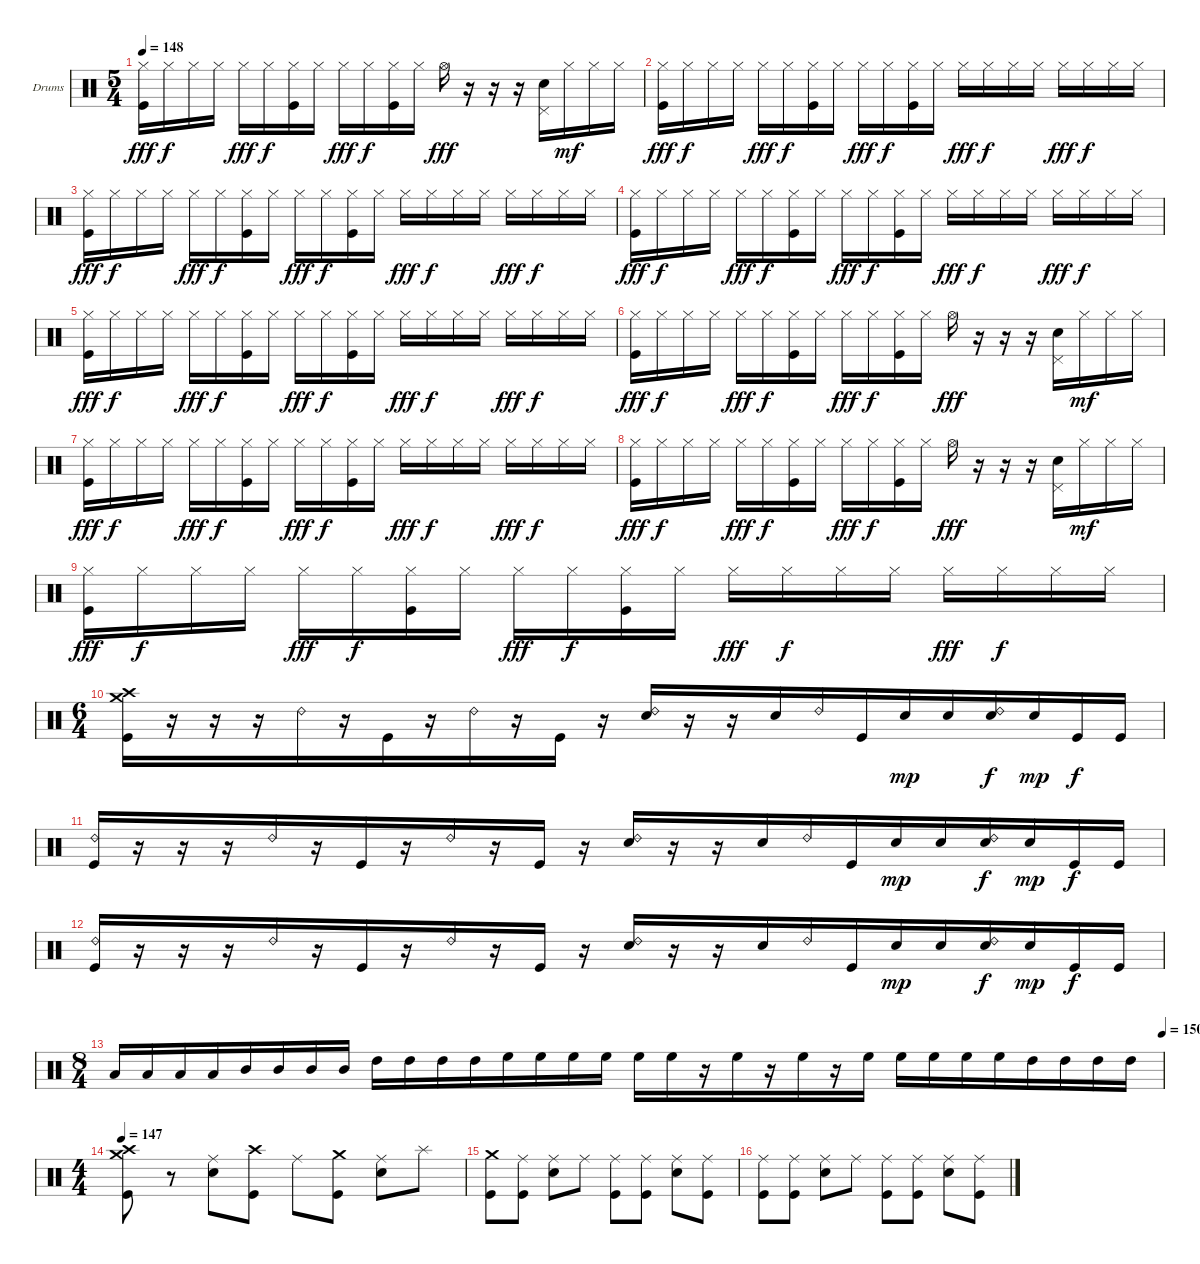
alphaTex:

\bracketExtendMode groupsimilarinstruments
\firstSystemTrackNameOrientation horizontal
\otherSystemsTrackNameOrientation horizontal
\track ("Ударные" "Drums") {instrument percussion}
\staff {score}
\articulation defaults
\ts (5 4)
\tempo 148
\clef neutral
\ks c
("Hi-Hat (closed)" "Kick (hit)").16{dy fff} "Hi-Hat (closed)".16{dy f} "Hi-Hat (closed)".16 "Hi-Hat (closed)".16 "Hi-Hat (closed)".16{dy fff} "Hi-Hat (closed)".16{dy f} ("Hi-Hat (closed)" "Kick (hit)").16 "Hi-Hat (closed)".16 "Hi-Hat (closed)".16{dy fff} "Hi-Hat (closed)".16{dy f} ("Hi-Hat (closed)" "Kick (hit)").16 "Hi-Hat (closed)".16 "Hi-Hat (open)".16{dy fff} r.16 r.16 r.16 ("Pedal Hi-Hat (hit)" "Snare (hit) 2").16 "Hi-Hat (closed)".16{dy mf} "Hi-Hat (closed)".16 "Hi-Hat (closed)".16 |
("Hi-Hat (closed)" "Kick (hit)").16{dy fff} "Hi-Hat (closed)".16{dy f} "Hi-Hat (closed)".16 "Hi-Hat (closed)".16 "Hi-Hat (closed)".16{dy fff} "Hi-Hat (closed)".16{dy f} ("Hi-Hat (closed)" "Kick (hit)").16 "Hi-Hat (closed)".16 "Hi-Hat (closed)".16{dy fff} "Hi-Hat (closed)".16{dy f} ("Hi-Hat (closed)" "Kick (hit)").16 "Hi-Hat (closed)".16 "Hi-Hat (closed)".16{dy fff} "Hi-Hat (closed)".16{dy f} "Hi-Hat (closed)".16 "Hi-Hat (closed)".16 "Hi-Hat (closed)".16{dy fff} "Hi-Hat (closed)".16{dy f} "Hi-Hat (closed)".16 "Hi-Hat (closed)".16 |
("Hi-Hat (closed)" "Kick (hit)").16{dy fff} "Hi-Hat (closed)".16{dy f} "Hi-Hat (closed)".16 "Hi-Hat (closed)".16 "Hi-Hat (closed)".16{dy fff} "Hi-Hat (closed)".16{dy f} ("Hi-Hat (closed)" "Kick (hit)").16 "Hi-Hat (closed)".16 "Hi-Hat (closed)".16{dy fff} "Hi-Hat (closed)".16{dy f} ("Hi-Hat (closed)" "Kick (hit)").16 "Hi-Hat (closed)".16 "Hi-Hat (closed)".16{dy fff} "Hi-Hat (closed)".16{dy f} "Hi-Hat (closed)".16 "Hi-Hat (closed)".16 "Hi-Hat (closed)".16{dy fff} "Hi-Hat (closed)".16{dy f} "Hi-Hat (closed)".16 "Hi-Hat (closed)".16 |
("Hi-Hat (closed)" "Kick (hit)").16{dy fff} "Hi-Hat (closed)".16{dy f} "Hi-Hat (closed)".16 "Hi-Hat (closed)".16 "Hi-Hat (closed)".16{dy fff} "Hi-Hat (closed)".16{dy f} ("Hi-Hat (closed)" "Kick (hit)").16 "Hi-Hat (closed)".16 "Hi-Hat (closed)".16{dy fff} "Hi-Hat (closed)".16{dy f} ("Hi-Hat (closed)" "Kick (hit)").16 "Hi-Hat (closed)".16 "Hi-Hat (closed)".16{dy fff} "Hi-Hat (closed)".16{dy f} "Hi-Hat (closed)".16 "Hi-Hat (closed)".16 "Hi-Hat (closed)".16{dy fff} "Hi-Hat (closed)".16{dy f} "Hi-Hat (closed)".16 "Hi-Hat (closed)".16 |
("Hi-Hat (closed)" "Kick (hit)").16{dy fff} "Hi-Hat (closed)".16{dy f} "Hi-Hat (closed)".16 "Hi-Hat (closed)".16 "Hi-Hat (closed)".16{dy fff} "Hi-Hat (closed)".16{dy f} ("Hi-Hat (closed)" "Kick (hit)").16 "Hi-Hat (closed)".16 "Hi-Hat (closed)".16{dy fff} "Hi-Hat (closed)".16{dy f} ("Hi-Hat (closed)" "Kick (hit)").16 "Hi-Hat (closed)".16 "Hi-Hat (closed)".16{dy fff} "Hi-Hat (closed)".16{dy f} "Hi-Hat (closed)".16 "Hi-Hat (closed)".16 "Hi-Hat (closed)".16{dy fff} "Hi-Hat (closed)".16{dy f} "Hi-Hat (closed)".16 "Hi-Hat (closed)".16 |
("Hi-Hat (closed)" "Kick (hit)").16{dy fff} "Hi-Hat (closed)".16{dy f} "Hi-Hat (closed)".16 "Hi-Hat (closed)".16 "Hi-Hat (closed)".16{dy fff} "Hi-Hat (closed)".16{dy f} ("Hi-Hat (closed)" "Kick (hit)").16 "Hi-Hat (closed)".16 "Hi-Hat (closed)".16{dy fff} "Hi-Hat (closed)".16{dy f} ("Hi-Hat (closed)" "Kick (hit)").16 "Hi-Hat (closed)".16 "Hi-Hat (open)".16{dy fff} r.16 r.16 r.16 ("Pedal Hi-Hat (hit)" "Snare (hit) 2").16 "Hi-Hat (closed)".16{dy mf} "Hi-Hat (closed)".16 "Hi-Hat (closed)".16 |
("Hi-Hat (closed)" "Kick (hit)").16{dy fff} "Hi-Hat (closed)".16{dy f} "Hi-Hat (closed)".16 "Hi-Hat (closed)".16 "Hi-Hat (closed)".16{dy fff} "Hi-Hat (closed)".16{dy f} ("Hi-Hat (closed)" "Kick (hit)").16 "Hi-Hat (closed)".16 "Hi-Hat (closed)".16{dy fff} "Hi-Hat (closed)".16{dy f} ("Hi-Hat (closed)" "Kick (hit)").16 "Hi-Hat (closed)".16 "Hi-Hat (closed)".16{dy fff} "Hi-Hat (closed)".16{dy f} "Hi-Hat (closed)".16 "Hi-Hat (closed)".16 "Hi-Hat (closed)".16{dy fff} "Hi-Hat (closed)".16{dy f} "Hi-Hat (closed)".16 "Hi-Hat (closed)".16 |
("Hi-Hat (closed)" "Kick (hit)").16{dy fff} "Hi-Hat (closed)".16{dy f} "Hi-Hat (closed)".16 "Hi-Hat (closed)".16 "Hi-Hat (closed)".16{dy fff} "Hi-Hat (closed)".16{dy f} ("Hi-Hat (closed)" "Kick (hit)").16 "Hi-Hat (closed)".16 "Hi-Hat (closed)".16{dy fff} "Hi-Hat (closed)".16{dy f} ("Hi-Hat (closed)" "Kick (hit)").16 "Hi-Hat (closed)".16 "Hi-Hat (open)".16{dy fff} r.16 r.16 r.16 ("Pedal Hi-Hat (hit)" "Snare (hit) 2").16 "Hi-Hat (closed)".16{dy mf} "Hi-Hat (closed)".16 "Hi-Hat (closed)".16 |
("Hi-Hat (closed)" "Kick (hit)").16{dy fff} "Hi-Hat (closed)".16{dy f} "Hi-Hat (closed)".16 "Hi-Hat (closed)".16 "Hi-Hat (closed)".16{dy fff} "Hi-Hat (closed)".16{dy f} ("Hi-Hat (closed)" "Kick (hit)").16 "Hi-Hat (closed)".16 "Hi-Hat (closed)".16{dy fff} "Hi-Hat (closed)".16{dy f} ("Hi-Hat (closed)" "Kick (hit)").16 "Hi-Hat (closed)".16 "Hi-Hat (closed)".16{dy fff} "Hi-Hat (closed)".16{dy f} "Hi-Hat (closed)".16 "Hi-Hat (closed)".16 "Hi-Hat (closed)".16{dy fff} "Hi-Hat (closed)".16{dy f} "Hi-Hat (closed)".16 "Hi-Hat (closed)".16 |
\ts (6 4)
\beaming (8 6 6)
("Crash high (hit)" "Crash medium (hit)" "Kick (hit)").16 r.16 r.16 r.16 "Ride (bell) 2".16 r.16 "Kick (hit)".16 r.16 "Ride (bell) 2".16 r.16 "Kick (hit)".16 r.16 ("Ride (bell) 2" "Snare (hit) 2").16 r.16 r.16 "Snare (hit) 2".16 "Ride (bell) 2".16 "Kick (hit)".16 "Snare (hit) 2".16{dy mp} "Snare (hit) 2".16 ("Ride (bell) 2" "Snare (hit) 2").16{dy f} "Snare (hit) 2".16{dy mp} "Kick (hit)".16{dy f} "Kick (hit)".16 |
("Ride (bell) 2" "Kick (hit)").16 r.16 r.16 r.16 "Ride (bell) 2".16 r.16 "Kick (hit)".16 r.16 "Ride (bell) 2".16 r.16 "Kick (hit)".16 r.16 ("Ride (bell) 2" "Snare (hit) 2").16 r.16 r.16 "Snare (hit) 2".16 "Ride (bell) 2".16 "Kick (hit)".16 "Snare (hit) 2".16{dy mp} "Snare (hit) 2".16 ("Ride (bell) 2" "Snare (hit) 2").16{dy f} "Snare (hit) 2".16{dy mp} "Kick (hit)".16{dy f} "Kick (hit)".16 |
("Ride (bell) 2" "Kick (hit)").16 r.16 r.16 r.16 "Ride (bell) 2".16 r.16 "Kick (hit)".16 r.16 "Ride (bell) 2".16 r.16 "Kick (hit)".16 r.16 ("Ride (bell) 2" "Snare (hit) 2").16 r.16 r.16 "Snare (hit) 2".16 "Ride (bell) 2".16 "Kick (hit)".16 "Snare (hit) 2".16{dy mp} "Snare (hit) 2".16 ("Ride (bell) 2" "Snare (hit) 2").16{dy f} "Snare (hit) 2".16{dy mp} "Kick (hit)".16{dy f} "Kick (hit)".16 |
\ts (8 4)
\beaming (8 4 4 4 4)
\tempo (150 1)
"Low Tom (hit)".16 "Low Tom (hit)".16 "Low Tom (hit)".16 "Low Tom (hit)".16 "Mid Tom (hit)".16 "Mid Tom (hit)".16 "Mid Tom (hit)".16 "Mid Tom (hit)".16 "High Tom (hit)".16 "High Tom (hit)".16 "High Tom (hit)".16 "High Tom (hit)".16 "High Floor Tom (hit)".16 "High Floor Tom (hit)".16 "High Floor Tom (hit)".16 "High Floor Tom (hit)".16 "High Floor Tom (hit)".16 "High Floor Tom (hit)".16 r.16 "High Floor Tom (hit)".16 r.16 "High Floor Tom (hit)".16 r.16 "High Floor Tom (hit)".16 "High Floor Tom (hit)".16 "High Floor Tom (hit)".16 "High Floor Tom (hit)".16 "High Floor Tom (hit)".16 "High Tom (hit)".16 "High Tom (hit)".16 "High Tom (hit)".16 "High Tom (hit)".16 |
\ts (4 4)
\beaming (8 2 2 2 2)
\tempo 147
("Crash medium (hit)" "Crash high (hit)" "Kick (hit)").8 r.8 ("Ride (middle)" "Snare (hit) 2").8 ("Crash high (hit)" "Kick (hit)").8 "Ride (middle)".8 ("Crash medium (hit)" "Kick (hit)").8 ("Ride (middle)" "Snare (hit) 2").8 "Splash (hit)".8 |
("Crash medium (hit)" "Kick (hit)").8 ("Ride (middle)" "Kick (hit)").8 ("Ride (middle)" "Snare (hit) 2").8 "Ride (middle)".8 ("Ride (middle)" "Kick (hit)").8 ("Ride (middle)" "Kick (hit)").8 ("Ride (middle)" "Snare (hit) 2").8 ("Ride (middle)" "Kick (hit)").8 |
("Ride (middle)" "Kick (hit)").8 ("Ride (middle)" "Kick (hit)").8 ("Ride (middle)" "Snare (hit) 2").8 "Ride (middle)".8 ("Ride (middle)" "Kick (hit)").8 ("Ride (middle)" "Kick (hit)").8 ("Ride (middle)" "Snare (hit) 2").8 ("Ride (middle)" "Kick (hit)").8
